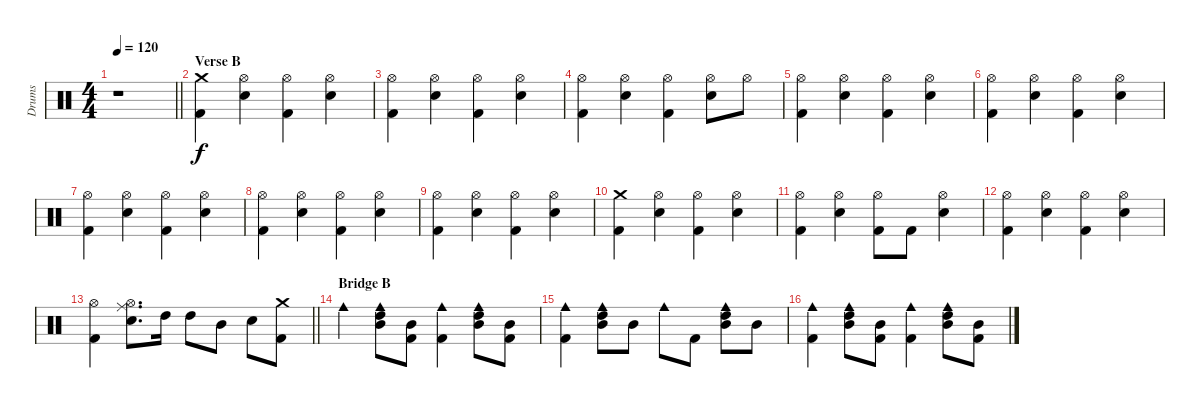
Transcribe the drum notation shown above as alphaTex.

\track ("Drums" "Drums") {instrument percussion}
\staff {score}
\articulation defaults
\ts (4 4)
\tempo 120
\clef neutral
\barLineRight lightlight
\ks c
r.1{dy f} |
\section ("" "Verse B")
("Crash medium (hit)" "Kick (hit) 2").4 ("Hi-Hat (open)" "Electric Snare (hit)").4 ("Hi-Hat (open)" "Kick (hit) 2").4 ("Hi-Hat (open)" "Electric Snare (hit)").4 |
("Hi-Hat (open)" "Kick (hit) 2").4 ("Hi-Hat (open)" "Electric Snare (hit)").4 ("Hi-Hat (open)" "Kick (hit) 2").4 ("Hi-Hat (open)" "Electric Snare (hit)").4 |
("Hi-Hat (open)" "Kick (hit) 2").4 ("Hi-Hat (open)" "Electric Snare (hit)").4 ("Hi-Hat (open)" "Kick (hit) 2").4 ("Hi-Hat (open)" "Electric Snare (hit)").8 "Hi-Hat (open)".8 |
("Hi-Hat (open)" "Kick (hit) 2").4 ("Hi-Hat (open)" "Electric Snare (hit)").4 ("Hi-Hat (open)" "Kick (hit) 2").4 ("Hi-Hat (open)" "Electric Snare (hit)").4 |
("Hi-Hat (open)" "Kick (hit) 2").4 ("Hi-Hat (open)" "Electric Snare (hit)").4 ("Hi-Hat (open)" "Kick (hit) 2").4 ("Hi-Hat (open)" "Electric Snare (hit)").4 |
("Hi-Hat (open)" "Kick (hit) 2").4 ("Hi-Hat (open)" "Electric Snare (hit)").4 ("Hi-Hat (open)" "Kick (hit) 2").4 ("Hi-Hat (open)" "Electric Snare (hit)").4 |
("Hi-Hat (open)" "Kick (hit) 2").4 ("Hi-Hat (open)" "Electric Snare (hit)").4 ("Hi-Hat (open)" "Kick (hit) 2").4 ("Hi-Hat (open)" "Electric Snare (hit)").4 |
("Hi-Hat (open)" "Kick (hit) 2").4 ("Hi-Hat (open)" "Electric Snare (hit)").4 ("Hi-Hat (open)" "Kick (hit) 2").4 ("Hi-Hat (open)" "Electric Snare (hit)").4 |
("Crash medium (hit)" "Kick (hit) 2").4 ("Hi-Hat (open)" "Electric Snare (hit)").4 ("Hi-Hat (open)" "Kick (hit) 2").4 ("Hi-Hat (open)" "Electric Snare (hit)").4 |
("Hi-Hat (open)" "Kick (hit) 2").4 ("Hi-Hat (open)" "Electric Snare (hit)").4 ("Hi-Hat (open)" "Kick (hit) 2").8 "Kick (hit) 2".8 ("Hi-Hat (open)" "Electric Snare (hit)").4 |
("Hi-Hat (open)" "Kick (hit) 2").4 ("Hi-Hat (open)" "Electric Snare (hit)").4 ("Hi-Hat (open)" "Kick (hit) 2").4 ("Hi-Hat (open)" "Electric Snare (hit)").4 |
\barLineRight lightlight
("Hi-Hat (open)" "Kick (hit) 2").4 ("Ride (middle)" "Hi-Hat (open)" "Electric Snare (hit)").8{d} "High Tom (hit)".16 "High Tom (hit)".8 "Mid Tom (hit)".8 "Electric Snare (hit)".8 ("Crash medium (hit)" "Kick (hit) 2").8 |
\section ("" "Bridge B")
"Cowbell medium (hit)".4 ("High Tom (hit)" "Mid Tom (hit)" "Cowbell medium (hit)").8 ("Mid Tom (hit)" "Kick (hit) 2").8 ("Cowbell medium (hit)" "Kick (hit) 2").4 ("High Tom (hit)" "Mid Tom (hit)" "Cowbell medium (hit)").8 ("Mid Tom (hit)" "Kick (hit) 2").8 |
("Cowbell medium (hit)" "Kick (hit) 2").4 ("High Tom (hit)" "Mid Tom (hit)" "Cowbell medium (hit)").8 "Mid Tom (hit)".8 "Cowbell medium (hit)".8 "Kick (hit) 2".8 ("High Tom (hit)" "Mid Tom (hit)" "Cowbell medium (hit)").8 "Mid Tom (hit)".8 |
("Cowbell medium (hit)" "Kick (hit) 2").4 ("High Tom (hit)" "Mid Tom (hit)" "Cowbell medium (hit)").8 ("Mid Tom (hit)" "Kick (hit) 2").8 ("Cowbell medium (hit)" "Kick (hit) 2").4 ("High Tom (hit)" "Mid Tom (hit)" "Cowbell medium (hit)").8 ("Mid Tom (hit)" "Kick (hit) 2").8
